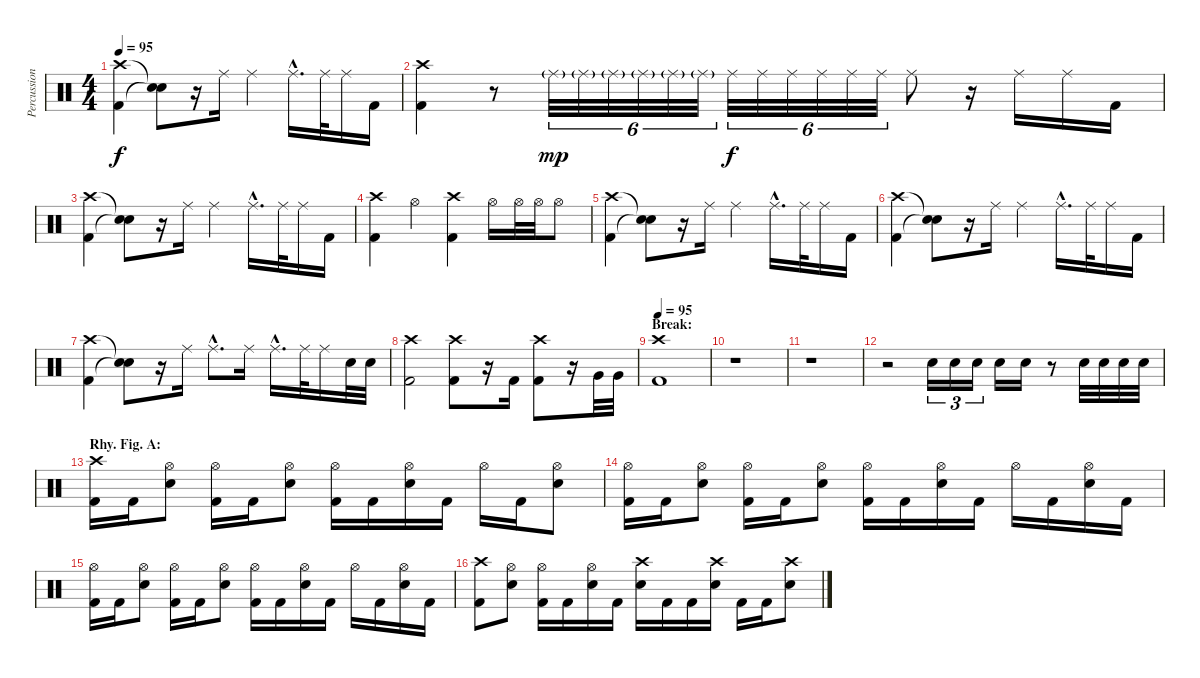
\track ("Percussion" "Percussion") {instrument percussion}
\staff {score}
\articulation defaults
\ts (4 4)
\tempo 95
\tempo 48
\tempo 95
\clef neutral
\ks c
("Crash high (hit)" "Kick (hit) 2").4{dy f} ("Snare (hit)"{t} "Snare (hit)"{t}).8 r.16 "Ride (middle)".16 "Ride (middle)".4 "Ride (middle)"{hac}.16{d} "Ride (middle)".32 "Ride (middle)".16 "Kick (hit) 2".16 |
("Crash high (hit)" "Kick (hit) 2").4 r.8 "Ride (middle)"{g}.32{tu (6 4) dy mp} "Ride (middle)"{g}.32{tu (6 4)} "Ride (middle)"{g}.32{tu (6 4)} "Ride (middle)"{g}.32{tu (6 4)} "Ride (middle)"{g}.32{tu (6 4)} "Ride (middle)"{g}.32{tu (6 4)} "Ride (middle)".32{tu (6 4) dy f} "Ride (middle)".32{tu (6 4)} "Ride (middle)".32{tu (6 4)} "Ride (middle)".32{tu (6 4)} "Ride (middle)".32{tu (6 4)} "Ride (middle)".32{tu (6 4)} "Ride (middle)".8 r.16 "Ride (middle)".16 "Ride (middle)".16 "Kick (hit) 2".16 |
("Crash high (hit)" "Kick (hit) 2").4 ("Snare (hit)"{t} "Snare (hit)"{t}).8 r.16 "Ride (middle)".16 "Ride (middle)".4 "Ride (middle)"{hac}.16{d} "Ride (middle)".32 "Ride (middle)".16 "Kick (hit) 2".16 |
("Crash high (hit)" "Kick (hit) 2").4 "Hi-Hat (open)".4 ("Crash high (hit)" "Kick (hit) 2").4 "Hi-Hat (open)".16 "Hi-Hat (open)".32 "Hi-Hat (open)".32 "Hi-Hat (open)".8 |
("Crash high (hit)" "Kick (hit) 2").4 ("Snare (hit)"{t} "Snare (hit)"{t}).8 r.16 "Ride (middle)".16 "Ride (middle)".4 "Ride (middle)"{hac}.16{d} "Ride (middle)".32 "Ride (middle)".16 "Kick (hit) 2".16 |
("Crash high (hit)" "Kick (hit) 2").4 ("Snare (hit)"{t} "Snare (hit)"{t}).8 r.16 "Ride (middle)".16 "Ride (middle)".4 "Ride (middle)"{hac}.16{d} "Ride (middle)".32 "Ride (middle)".16 "Kick (hit) 2".16 |
("Crash high (hit)" "Kick (hit) 2").4 ("Snare (hit)"{t} "Snare (hit)"{t}).8 r.16 "Ride (middle)".16 "Ride (middle)"{hac}.8{d} "Ride (middle)".16 "Ride (middle)"{hac}.16{d} "Ride (middle)".32 "Ride (middle)".16 "Electric Snare (hit)".32 "Electric Snare (hit)".32 |
("Crash high (hit)" "Kick (hit) 2").2 ("Crash high (hit)" "Kick (hit) 2").8 r.16 "Kick (hit) 2".16 ("Crash high (hit)" "Kick (hit) 2").8 r.16 "Very Low Tom (hit)".32 "Very Low Tom (hit)".32 |
\section ("" "Break:")
\tempo 95
("Crash high (hit)" "Kick (hit) 2").1 |
r.1 |
r.1 |
r.2 "Electric Snare (hit)".16{tu (3 2)} "Electric Snare (hit)".16{tu (3 2)} "Electric Snare (hit)".16{tu (3 2)} "Electric Snare (hit)".16 "Electric Snare (hit)".16 r.8 "Electric Snare (hit)".32 "Electric Snare (hit)".32 "Electric Snare (hit)".32 "Electric Snare (hit)".32 |
\section ("" "Rhy. Fig. A:")
("Crash high (hit)" "Kick (hit) 2").16 "Kick (hit) 2".16 ("Hi-Hat (open)" "Electric Snare (hit)").8 ("Hi-Hat (open)" "Kick (hit) 2").16 "Kick (hit) 2".16 ("Hi-Hat (open)" "Electric Snare (hit)").8 ("Hi-Hat (open)" "Kick (hit) 2").16 "Kick (hit) 2".16 ("Hi-Hat (open)" "Electric Snare (hit)").16 "Kick (hit) 2".16 "Hi-Hat (open)".16 "Kick (hit) 2".16 ("Hi-Hat (open)" "Electric Snare (hit)").8 |
("Hi-Hat (open)" "Kick (hit) 2").16 "Kick (hit) 2".16 ("Hi-Hat (open)" "Electric Snare (hit)").8 ("Hi-Hat (open)" "Kick (hit) 2").16 "Kick (hit) 2".16 ("Hi-Hat (open)" "Electric Snare (hit)").8 ("Hi-Hat (open)" "Kick (hit) 2").16 "Kick (hit) 2".16 ("Hi-Hat (open)" "Electric Snare (hit)").16 "Kick (hit) 2".16 "Hi-Hat (open)".16 "Kick (hit) 2".16 ("Hi-Hat (open)" "Electric Snare (hit)").16 "Kick (hit) 2".16 |
("Hi-Hat (open)" "Kick (hit) 2").16 "Kick (hit) 2".16 ("Hi-Hat (open)" "Electric Snare (hit)").8 ("Hi-Hat (open)" "Kick (hit) 2").16 "Kick (hit) 2".16 ("Hi-Hat (open)" "Electric Snare (hit)").8 ("Hi-Hat (open)" "Kick (hit) 2").16 "Kick (hit) 2".16 ("Hi-Hat (open)" "Electric Snare (hit)").16 "Kick (hit) 2".16 "Hi-Hat (open)".16 "Kick (hit) 2".16 ("Hi-Hat (open)" "Electric Snare (hit)").16 "Kick (hit) 2".16 |
("Crash high (hit)" "Kick (hit) 2").8 ("Hi-Hat (open)" "Electric Snare (hit)").8 ("Hi-Hat (open)" "Kick (hit) 2").16 "Kick (hit) 2".16 ("Hi-Hat (open)" "Electric Snare (hit)").16 "Kick (hit) 2".16 ("Crash high (hit)" "Electric Snare (hit)").16 "Kick (hit) 2".16 "Kick (hit) 2".16 ("Crash high (hit)" "Electric Snare (hit)").16 "Kick (hit) 2".16 "Kick (hit) 2".16 ("Crash high (hit)" "Electric Snare (hit)").8
